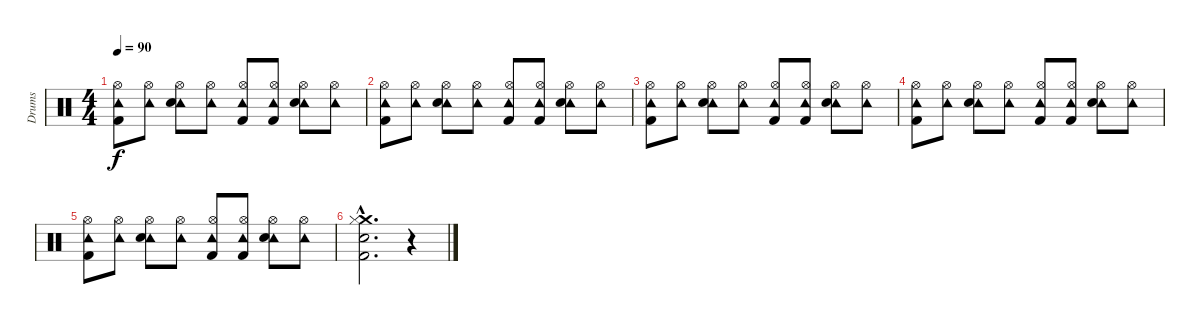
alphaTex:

\track ("Drums" "Drums") {instrument percussion}
\staff {score}
\articulation defaults
\ts (4 4)
\tempo 90
\clef neutral
\ks c
("Tambourine (hit)" "Hi-Hat (open)" "Kick (hit) 2").8{dy f} ("Tambourine (hit)" "Hi-Hat (open)").8 ("Tambourine (hit)" "Hi-Hat (open)" "Snare (hit) 2").8 ("Tambourine (hit)" "Hi-Hat (open)").8 ("Tambourine (hit)" "Hi-Hat (open)" "Kick (hit) 2").8 ("Tambourine (hit)" "Hi-Hat (open)" "Kick (hit) 2").8 ("Tambourine (hit)" "Hi-Hat (open)" "Snare (hit) 2").8 ("Tambourine (hit)" "Hi-Hat (open)").8 |
("Tambourine (hit)" "Hi-Hat (open)" "Kick (hit) 2").8 ("Tambourine (hit)" "Hi-Hat (open)").8 ("Tambourine (hit)" "Hi-Hat (open)" "Snare (hit) 2").8 ("Tambourine (hit)" "Hi-Hat (open)").8 ("Tambourine (hit)" "Hi-Hat (open)" "Kick (hit) 2").8 ("Tambourine (hit)" "Hi-Hat (open)" "Kick (hit) 2").8 ("Tambourine (hit)" "Hi-Hat (open)" "Snare (hit) 2").8 ("Tambourine (hit)" "Hi-Hat (open)").8 |
("Tambourine (hit)" "Hi-Hat (open)" "Kick (hit) 2").8 ("Tambourine (hit)" "Hi-Hat (open)").8 ("Tambourine (hit)" "Hi-Hat (open)" "Snare (hit) 2").8 ("Tambourine (hit)" "Hi-Hat (open)").8 ("Tambourine (hit)" "Hi-Hat (open)" "Kick (hit) 2").8 ("Tambourine (hit)" "Hi-Hat (open)" "Kick (hit) 2").8 ("Tambourine (hit)" "Hi-Hat (open)" "Snare (hit) 2").8 ("Tambourine (hit)" "Hi-Hat (open)").8 |
("Tambourine (hit)" "Hi-Hat (open)" "Kick (hit) 2").8 ("Tambourine (hit)" "Hi-Hat (open)").8 ("Tambourine (hit)" "Hi-Hat (open)" "Snare (hit) 2").8 ("Tambourine (hit)" "Hi-Hat (open)").8 ("Tambourine (hit)" "Hi-Hat (open)" "Kick (hit) 2").8 ("Tambourine (hit)" "Hi-Hat (open)" "Kick (hit) 2").8 ("Tambourine (hit)" "Hi-Hat (open)" "Snare (hit) 2").8 ("Tambourine (hit)" "Hi-Hat (open)").8 |
("Tambourine (hit)" "Hi-Hat (open)" "Kick (hit) 2").8 ("Tambourine (hit)" "Hi-Hat (open)").8 ("Tambourine (hit)" "Hi-Hat (open)" "Snare (hit) 2").8 ("Tambourine (hit)" "Hi-Hat (open)").8 ("Tambourine (hit)" "Hi-Hat (open)" "Kick (hit) 2").8 ("Tambourine (hit)" "Hi-Hat (open)" "Kick (hit) 2").8 ("Tambourine (hit)" "Hi-Hat (open)" "Snare (hit) 2").8 ("Tambourine (hit)" "Hi-Hat (open)").8 |
("Crash medium (hit)"{hac} "Hi-Hat (closed)"{hac} "Snare (hit) 2"{hac} "Kick (hit) 2"{hac}).2{d} r.4
